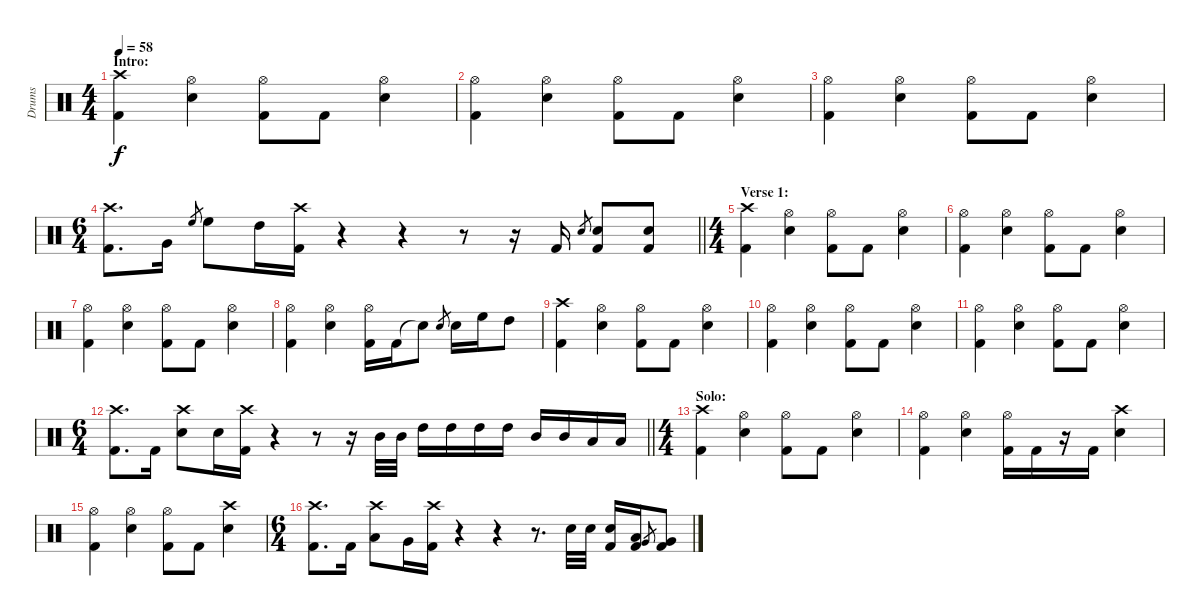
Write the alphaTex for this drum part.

\track ("Drums" "Drums") {instrument percussion}
\staff {score}
\articulation defaults
\ts (4 4)
\section ("" "Intro:")
\tempo 58
\clef neutral
\ks c
("Crash high (hit)" "Kick (hit) 2").4{dy f} ("Hi-Hat (open)" "Snare (hit) 2").4 ("Hi-Hat (open)" "Kick (hit) 2").8 "Kick (hit) 2".8 ("Hi-Hat (open)" "Snare (hit) 2").4 |
("Hi-Hat (open)" "Kick (hit) 2").4 ("Hi-Hat (open)" "Snare (hit) 2").4 ("Hi-Hat (open)" "Kick (hit) 2").8 "Kick (hit) 2".8 ("Hi-Hat (open)" "Snare (hit) 2").4 |
("Hi-Hat (open)" "Kick (hit) 2").4 ("Hi-Hat (open)" "Snare (hit) 2").4 ("Hi-Hat (open)" "Kick (hit) 2").8 "Kick (hit) 2".8 ("Hi-Hat (open)" "Snare (hit) 2").4 |
\ts (6 4)
\barLineRight lightlight
("Crash high (hit)" "Kick (hit) 2").8{d} "Very Low Tom (hit)".16 "High Floor Tom (hit)".8{gr} "High Floor Tom (hit)".8 "High Tom (hit)".16 ("Crash high (hit)" "Kick (hit) 2").16 r.4 r.4 r.8 r.16 "Kick (hit) 2".16 "Snare (hit) 2".8{gr} ("Snare (hit) 2" "Kick (hit) 2").8 ("Snare (hit) 2" "Kick (hit) 2").8 |
\ts (4 4)
\section ("" "Verse 1:")
("Crash high (hit)" "Kick (hit) 2").4 ("Hi-Hat (open)" "Snare (hit) 2").4 ("Hi-Hat (open)" "Kick (hit) 2").8 "Kick (hit) 2".8 ("Hi-Hat (open)" "Snare (hit) 2").4 |
("Hi-Hat (open)" "Kick (hit) 2").4 ("Hi-Hat (open)" "Snare (hit) 2").4 ("Hi-Hat (open)" "Kick (hit) 2").8 "Kick (hit) 2".8 ("Hi-Hat (open)" "Snare (hit) 2").4 |
("Hi-Hat (open)" "Kick (hit) 2").4 ("Hi-Hat (open)" "Snare (hit) 2").4 ("Hi-Hat (open)" "Kick (hit) 2").8 "Kick (hit) 2".8 ("Hi-Hat (open)" "Snare (hit) 2").4 |
("Hi-Hat (open)" "Kick (hit) 2").4 ("Hi-Hat (open)" "Snare (hit) 2").4 ("Hi-Hat (open)" "Kick (hit) 2").16 "Kick (hit) 2".16 "Snare (hit)"{t}.8 "Snare (hit) 2".8{gr} "Snare (hit) 2".16 "High Floor Tom (hit)".16 "High Tom (hit)".8 |
("Crash high (hit)" "Kick (hit) 2").4 ("Hi-Hat (open)" "Snare (hit) 2").4 ("Hi-Hat (open)" "Kick (hit) 2").8 "Kick (hit) 2".8 ("Hi-Hat (open)" "Snare (hit) 2").4 |
("Hi-Hat (open)" "Kick (hit) 2").4 ("Hi-Hat (open)" "Snare (hit) 2").4 ("Hi-Hat (open)" "Kick (hit) 2").8 "Kick (hit) 2".8 ("Hi-Hat (open)" "Snare (hit) 2").4 |
("Hi-Hat (open)" "Kick (hit) 2").4 ("Hi-Hat (open)" "Snare (hit) 2").4 ("Hi-Hat (open)" "Kick (hit) 2").8 "Kick (hit) 2".8 ("Hi-Hat (open)" "Snare (hit) 2").4 |
\ts (6 4)
\barLineRight lightlight
("Crash high (hit)" "Kick (hit) 2").8{d} "Kick (hit) 2".16 ("Crash high (hit)" "Snare (hit) 2").8 "Snare (hit) 2".16 ("Crash high (hit)" "Kick (hit) 2").16 r.4 r.8 r.16 "Mid Tom (hit)".32 "Mid Tom (hit)".32 "High Tom (hit)".16 "High Tom (hit)".16 "High Tom (hit)".16 "High Tom (hit)".16 "Mid Tom (hit)".16 "Mid Tom (hit)".16 "Low Tom (hit)".16 "Low Tom (hit)".16 |
\ts (4 4)
\section ("" "Solo:")
("Crash high (hit)" "Kick (hit) 2").4 ("Hi-Hat (open)" "Snare (hit) 2").4 ("Hi-Hat (open)" "Kick (hit) 2").8 "Kick (hit) 2".8 ("Hi-Hat (open)" "Snare (hit) 2").4 |
("Hi-Hat (open)" "Kick (hit) 2").4 ("Hi-Hat (open)" "Snare (hit) 2").4 ("Hi-Hat (open)" "Kick (hit) 2").16 "Kick (hit) 2".16 r.16 "Kick (hit) 2".16 ("Crash high (hit)" "Snare (hit) 2").4 |
("Hi-Hat (open)" "Kick (hit) 2").4 ("Hi-Hat (open)" "Snare (hit) 2").4 ("Hi-Hat (open)" "Kick (hit) 2").8 "Kick (hit) 2".8 ("Crash high (hit)" "Snare (hit) 2").4 |
\ts (6 4)
("Crash high (hit)" "Kick (hit) 2").8{d} "Kick (hit) 2".16 ("Crash high (hit)" "Low Tom (hit)").8 "Very Low Tom (hit)".16 ("Crash high (hit)" "Kick (hit) 2").16 r.4 r.4 r.8{d} "Snare (hit) 2".32 "Snare (hit) 2".32 ("Snare (hit) 2" "Kick (hit) 2").16 ("Low Tom (hit)" "Kick (hit) 2").16 "Very Low Tom (hit)".8{gr} ("Very Low Tom (hit)" "Kick (hit) 2").8
